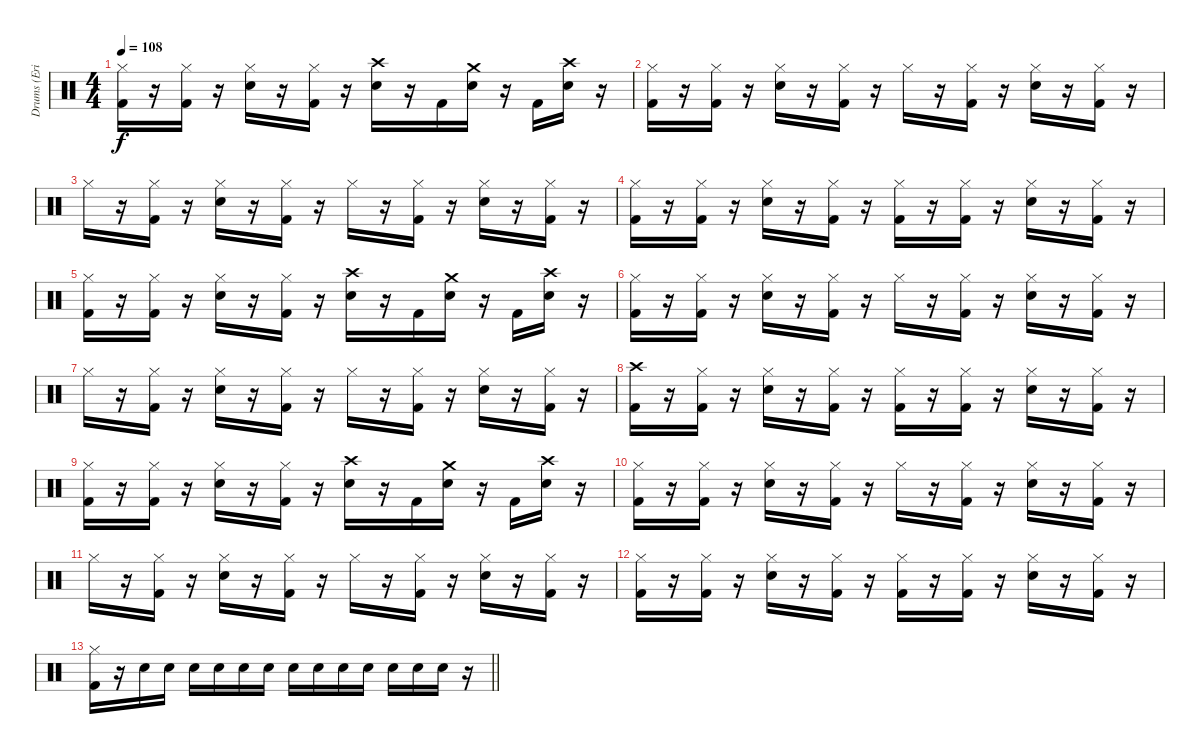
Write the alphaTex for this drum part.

\track ("Drums (Eric Kretz)" "Drums (Eri") {instrument percussion}
\staff {score}
\articulation defaults
\ts (4 4)
\tempo 108
\clef neutral
\ks c
("Hi-Hat (closed)" "Kick (hit) 2").16{dy f} r.16 ("Hi-Hat (closed)" "Kick (hit) 2").16 r.16 ("Hi-Hat (closed)" "Electric Snare (hit)").16 r.16 ("Hi-Hat (closed)" "Kick (hit) 2").16 r.16 ("Crash high (hit)" "Electric Snare (hit)").16 r.16 "Kick (hit) 2".16 ("Crash medium (hit)" "Electric Snare (hit)").16 r.16 "Kick (hit) 2".16 ("Crash high (hit)" "Electric Snare (hit)").16 r.16 |
("Hi-Hat (closed)" "Kick (hit) 2").16 r.16 ("Hi-Hat (closed)" "Kick (hit) 2").16 r.16 ("Hi-Hat (closed)" "Electric Snare (hit)").16 r.16 ("Hi-Hat (closed)" "Kick (hit) 2").16 r.16 "Hi-Hat (closed)".16 r.16 ("Hi-Hat (closed)" "Kick (hit) 2").16 r.16 ("Hi-Hat (closed)" "Electric Snare (hit)").16 r.16 ("Hi-Hat (closed)" "Kick (hit) 2").16 r.16 |
"Hi-Hat (closed)".16 r.16 ("Hi-Hat (closed)" "Kick (hit) 2").16 r.16 ("Hi-Hat (closed)" "Electric Snare (hit)").16 r.16 ("Hi-Hat (closed)" "Kick (hit) 2").16 r.16 "Hi-Hat (closed)".16 r.16 ("Hi-Hat (closed)" "Kick (hit) 2").16 r.16 ("Hi-Hat (closed)" "Electric Snare (hit)").16 r.16 ("Hi-Hat (closed)" "Kick (hit) 2").16 r.16 |
("Hi-Hat (closed)" "Kick (hit) 2").16 r.16 ("Hi-Hat (closed)" "Kick (hit) 2").16 r.16 ("Hi-Hat (closed)" "Electric Snare (hit)").16 r.16 ("Hi-Hat (closed)" "Kick (hit) 2").16 r.16 ("Hi-Hat (closed)" "Kick (hit) 2").16 r.16 ("Hi-Hat (closed)" "Kick (hit) 2").16 r.16 ("Hi-Hat (closed)" "Electric Snare (hit)").16 r.16 ("Hi-Hat (closed)" "Kick (hit) 2").16 r.16 |
("Hi-Hat (closed)" "Kick (hit) 2").16 r.16 ("Hi-Hat (closed)" "Kick (hit) 2").16 r.16 ("Hi-Hat (closed)" "Electric Snare (hit)").16 r.16 ("Hi-Hat (closed)" "Kick (hit) 2").16 r.16 ("Crash high (hit)" "Electric Snare (hit)").16 r.16 "Kick (hit) 2".16 ("Crash medium (hit)" "Electric Snare (hit)").16 r.16 "Kick (hit) 2".16 ("Crash high (hit)" "Electric Snare (hit)").16 r.16 |
("Hi-Hat (closed)" "Kick (hit) 2").16 r.16 ("Hi-Hat (closed)" "Kick (hit) 2").16 r.16 ("Hi-Hat (closed)" "Electric Snare (hit)").16 r.16 ("Hi-Hat (closed)" "Kick (hit) 2").16 r.16 "Hi-Hat (closed)".16 r.16 ("Hi-Hat (closed)" "Kick (hit) 2").16 r.16 ("Hi-Hat (closed)" "Electric Snare (hit)").16 r.16 ("Hi-Hat (closed)" "Kick (hit) 2").16 r.16 |
"Hi-Hat (closed)".16 r.16 ("Hi-Hat (closed)" "Kick (hit) 2").16 r.16 ("Hi-Hat (closed)" "Electric Snare (hit)").16 r.16 ("Hi-Hat (closed)" "Kick (hit) 2").16 r.16 "Hi-Hat (closed)".16 r.16 ("Hi-Hat (closed)" "Kick (hit) 2").16 r.16 ("Hi-Hat (closed)" "Electric Snare (hit)").16 r.16 ("Hi-Hat (closed)" "Kick (hit) 2").16 r.16 |
("Crash high (hit)" "Kick (hit) 2").16 r.16 ("Hi-Hat (closed)" "Kick (hit) 2").16 r.16 ("Hi-Hat (closed)" "Electric Snare (hit)").16 r.16 ("Hi-Hat (closed)" "Kick (hit) 2").16 r.16 ("Hi-Hat (closed)" "Kick (hit) 2").16 r.16 ("Hi-Hat (closed)" "Kick (hit) 2").16 r.16 ("Hi-Hat (closed)" "Electric Snare (hit)").16 r.16 ("Hi-Hat (closed)" "Kick (hit) 2").16 r.16 |
("Hi-Hat (closed)" "Kick (hit) 2").16 r.16 ("Hi-Hat (closed)" "Kick (hit) 2").16 r.16 ("Hi-Hat (closed)" "Electric Snare (hit)").16 r.16 ("Hi-Hat (closed)" "Kick (hit) 2").16 r.16 ("Crash high (hit)" "Electric Snare (hit)").16 r.16 "Kick (hit) 2".16 ("Crash medium (hit)" "Electric Snare (hit)").16 r.16 "Kick (hit) 2".16 ("Crash high (hit)" "Electric Snare (hit)").16 r.16 |
("Hi-Hat (closed)" "Kick (hit) 2").16 r.16 ("Hi-Hat (closed)" "Kick (hit) 2").16 r.16 ("Hi-Hat (closed)" "Electric Snare (hit)").16 r.16 ("Hi-Hat (closed)" "Kick (hit) 2").16 r.16 "Hi-Hat (closed)".16 r.16 ("Hi-Hat (closed)" "Kick (hit) 2").16 r.16 ("Hi-Hat (closed)" "Electric Snare (hit)").16 r.16 ("Hi-Hat (closed)" "Kick (hit) 2").16 r.16 |
"Hi-Hat (closed)".16 r.16 ("Hi-Hat (closed)" "Kick (hit) 2").16 r.16 ("Hi-Hat (closed)" "Electric Snare (hit)").16 r.16 ("Hi-Hat (closed)" "Kick (hit) 2").16 r.16 "Hi-Hat (closed)".16 r.16 ("Hi-Hat (closed)" "Kick (hit) 2").16 r.16 ("Hi-Hat (closed)" "Electric Snare (hit)").16 r.16 ("Hi-Hat (closed)" "Kick (hit) 2").16 r.16 |
("Hi-Hat (closed)" "Kick (hit) 2").16 r.16 ("Hi-Hat (closed)" "Kick (hit) 2").16 r.16 ("Hi-Hat (closed)" "Electric Snare (hit)").16 r.16 ("Hi-Hat (closed)" "Kick (hit) 2").16 r.16 ("Hi-Hat (closed)" "Kick (hit) 2").16 r.16 ("Hi-Hat (closed)" "Kick (hit) 2").16 r.16 ("Hi-Hat (closed)" "Electric Snare (hit)").16 r.16 ("Hi-Hat (closed)" "Kick (hit) 2").16 r.16 |
\barLineRight lightlight
("Hi-Hat (closed)" "Kick (hit) 2").16 r.16 "Electric Snare (hit)".16 "Electric Snare (hit)".16 "Electric Snare (hit)".16 "Electric Snare (hit)".16 "Electric Snare (hit)".16 "Electric Snare (hit)".16 "Electric Snare (hit)".16 "Electric Snare (hit)".16 "Electric Snare (hit)".16 "Electric Snare (hit)".16 "Electric Snare (hit)".16 "Electric Snare (hit)".16 "Electric Snare (hit)".16 r.16
